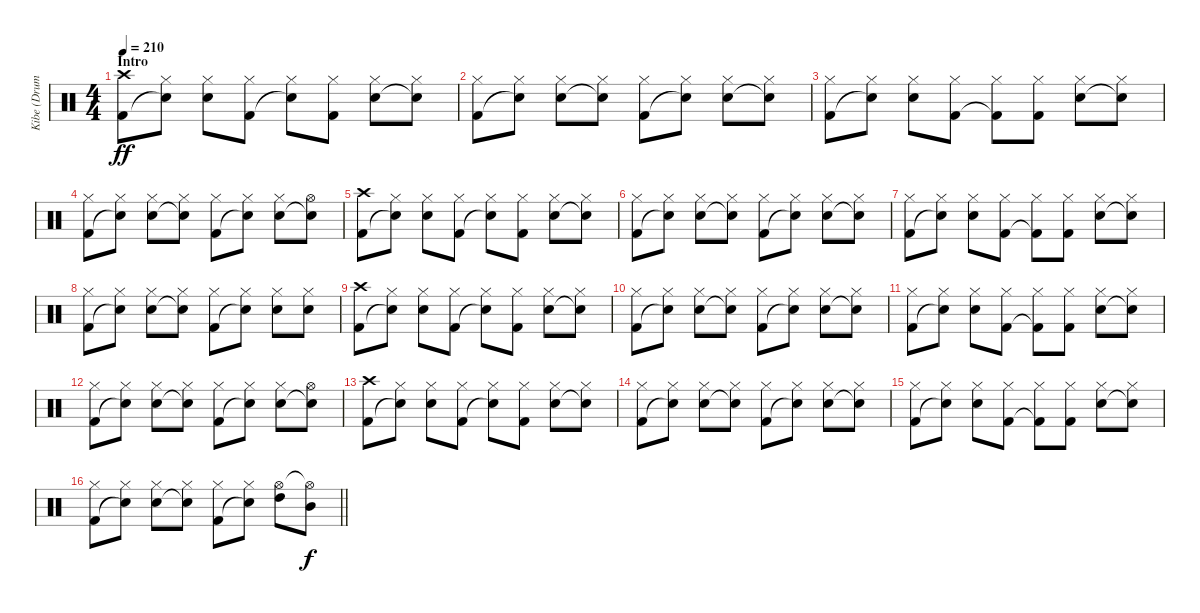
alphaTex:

\track ("Kibe (Drums)" "Kibe (Drum") {instrument percussion}
\staff {score}
\articulation defaults
\ts (4 4)
\section ("" "Intro")
\tempo 210
\clef neutral
\ks c
("Crash high (hit)" "Kick (hit) 2").8{dy ff} ("Hi-Hat (closed)" "Snare (hit)"{t}).8 ("Hi-Hat (closed)" "Snare (hit) 2").8 ("Hi-Hat (closed)" "Kick (hit) 2").8 ("Hi-Hat (closed)" "Snare (hit)"{t}).8 ("Hi-Hat (closed)" "Kick (hit) 2").8 ("Hi-Hat (closed)" "Snare (hit) 2").8 ("Hi-Hat (closed)" "Snare (hit)"{t}).8 |
("Hi-Hat (closed)" "Kick (hit) 2").8 ("Hi-Hat (closed)" "Snare (hit)"{t}).8 ("Hi-Hat (closed)" "Snare (hit) 2").8 ("Hi-Hat (closed)" "Snare (hit)"{t}).8 ("Hi-Hat (closed)" "Kick (hit) 2").8 ("Hi-Hat (closed)" "Snare (hit)"{t}).8 ("Hi-Hat (closed)" "Snare (hit) 2").8 ("Hi-Hat (closed)" "Snare (hit)"{t}).8 |
("Hi-Hat (closed)" "Kick (hit) 2").8 ("Hi-Hat (closed)" "Snare (hit)"{t}).8 ("Hi-Hat (closed)" "Snare (hit) 2").8 ("Hi-Hat (closed)" "Kick (hit) 2").8 ("Hi-Hat (closed)" "Kick (hit) 2"{t}).8 ("Hi-Hat (closed)" "Kick (hit) 2").8 ("Hi-Hat (closed)" "Snare (hit) 2").8 ("Hi-Hat (closed)" "Snare (hit)"{t}).8 |
("Hi-Hat (closed)" "Kick (hit) 2").8 ("Hi-Hat (closed)" "Snare (hit)"{t}).8 ("Hi-Hat (closed)" "Snare (hit) 2").8 ("Hi-Hat (closed)" "Snare (hit)"{t}).8 ("Hi-Hat (closed)" "Kick (hit) 2").8 ("Hi-Hat (closed)" "Snare (hit)"{t}).8 ("Hi-Hat (closed)" "Snare (hit) 2").8 ("Hi-Hat (open)" "Snare (hit)"{t}).8 |
("Crash high (hit)" "Kick (hit) 2").8 ("Hi-Hat (closed)" "Snare (hit)"{t}).8 ("Hi-Hat (closed)" "Snare (hit) 2").8 ("Hi-Hat (closed)" "Kick (hit) 2").8 ("Hi-Hat (closed)" "Snare (hit)"{t}).8 ("Hi-Hat (closed)" "Kick (hit) 2").8 ("Hi-Hat (closed)" "Snare (hit) 2").8 ("Hi-Hat (closed)" "Snare (hit)"{t}).8 |
("Hi-Hat (closed)" "Kick (hit) 2").8 ("Hi-Hat (closed)" "Snare (hit)"{t}).8 ("Hi-Hat (closed)" "Snare (hit) 2").8 ("Hi-Hat (closed)" "Snare (hit)"{t}).8 ("Hi-Hat (closed)" "Kick (hit) 2").8 ("Hi-Hat (closed)" "Snare (hit)"{t}).8 ("Hi-Hat (closed)" "Snare (hit) 2").8 ("Hi-Hat (closed)" "Snare (hit)"{t}).8 |
("Hi-Hat (closed)" "Kick (hit) 2").8 ("Hi-Hat (closed)" "Snare (hit)"{t}).8 ("Hi-Hat (closed)" "Snare (hit) 2").8 ("Hi-Hat (closed)" "Kick (hit) 2").8 ("Hi-Hat (closed)" "Kick (hit) 2"{t}).8 ("Hi-Hat (closed)" "Kick (hit) 2").8 ("Hi-Hat (closed)" "Snare (hit) 2").8 ("Hi-Hat (closed)" "Snare (hit)"{t}).8 |
("Hi-Hat (closed)" "Kick (hit) 2").8 ("Hi-Hat (closed)" "Snare (hit)"{t}).8 ("Hi-Hat (closed)" "Snare (hit) 2").8 ("Hi-Hat (closed)" "Snare (hit)"{t}).8 ("Hi-Hat (closed)" "Kick (hit) 2").8 ("Hi-Hat (closed)" "Snare (hit)"{t}).8 ("Hi-Hat (closed)" "Snare (hit) 2").8 ("Hi-Hat (closed)" "Snare (hit) 2").8 |
("Crash high (hit)" "Kick (hit) 2").8 ("Hi-Hat (closed)" "Snare (hit)"{t}).8 ("Hi-Hat (closed)" "Snare (hit) 2").8 ("Hi-Hat (closed)" "Kick (hit) 2").8 ("Hi-Hat (closed)" "Snare (hit)"{t}).8 ("Hi-Hat (closed)" "Kick (hit) 2").8 ("Hi-Hat (closed)" "Snare (hit) 2").8 ("Hi-Hat (closed)" "Snare (hit)"{t}).8 |
("Hi-Hat (closed)" "Kick (hit) 2").8 ("Hi-Hat (closed)" "Snare (hit)"{t}).8 ("Hi-Hat (closed)" "Snare (hit) 2").8 ("Hi-Hat (closed)" "Snare (hit)"{t}).8 ("Hi-Hat (closed)" "Kick (hit) 2").8 ("Hi-Hat (closed)" "Snare (hit)"{t}).8 ("Hi-Hat (closed)" "Snare (hit) 2").8 ("Hi-Hat (closed)" "Snare (hit)"{t}).8 |
("Hi-Hat (closed)" "Kick (hit) 2").8 ("Hi-Hat (closed)" "Snare (hit)"{t}).8 ("Hi-Hat (closed)" "Snare (hit) 2").8 ("Hi-Hat (closed)" "Kick (hit) 2").8 ("Hi-Hat (closed)" "Kick (hit) 2"{t}).8 ("Hi-Hat (closed)" "Kick (hit) 2").8 ("Hi-Hat (closed)" "Snare (hit) 2").8 ("Hi-Hat (closed)" "Snare (hit)"{t}).8 |
("Hi-Hat (closed)" "Kick (hit) 2").8 ("Hi-Hat (closed)" "Snare (hit)"{t}).8 ("Hi-Hat (closed)" "Snare (hit) 2").8 ("Hi-Hat (closed)" "Snare (hit)"{t}).8 ("Hi-Hat (closed)" "Kick (hit) 2").8 ("Hi-Hat (closed)" "Snare (hit)"{t}).8 ("Hi-Hat (closed)" "Snare (hit) 2").8 ("Hi-Hat (open)" "Snare (hit)"{t}).8 |
("Crash high (hit)" "Kick (hit) 2").8 ("Hi-Hat (closed)" "Snare (hit)"{t}).8 ("Hi-Hat (closed)" "Snare (hit) 2").8 ("Hi-Hat (closed)" "Kick (hit) 2").8 ("Hi-Hat (closed)" "Snare (hit)"{t}).8 ("Hi-Hat (closed)" "Kick (hit) 2").8 ("Hi-Hat (closed)" "Snare (hit) 2").8 ("Hi-Hat (closed)" "Snare (hit)"{t}).8 |
("Hi-Hat (closed)" "Kick (hit) 2").8 ("Hi-Hat (closed)" "Snare (hit)"{t}).8 ("Hi-Hat (closed)" "Snare (hit) 2").8 ("Hi-Hat (closed)" "Snare (hit)"{t}).8 ("Hi-Hat (closed)" "Kick (hit) 2").8 ("Hi-Hat (closed)" "Snare (hit)"{t}).8 ("Hi-Hat (closed)" "Snare (hit) 2").8 ("Hi-Hat (closed)" "Snare (hit)"{t}).8 |
("Hi-Hat (closed)" "Kick (hit) 2").8 ("Hi-Hat (closed)" "Snare (hit)"{t}).8 ("Hi-Hat (closed)" "Snare (hit) 2").8 ("Hi-Hat (closed)" "Kick (hit) 2").8 ("Hi-Hat (closed)" "Kick (hit) 2"{t}).8 ("Hi-Hat (closed)" "Kick (hit) 2").8 ("Hi-Hat (closed)" "Snare (hit) 2").8 ("Hi-Hat (closed)" "Snare (hit)"{t}).8 |
\barLineRight lightlight
("Hi-Hat (closed)" "Kick (hit) 2").8 ("Hi-Hat (closed)" "Snare (hit)"{t}).8 ("Hi-Hat (closed)" "Snare (hit) 2").8 ("Hi-Hat (closed)" "Snare (hit)"{t}).8 ("Hi-Hat (closed)" "Kick (hit) 2").8 ("Hi-Hat (closed)" "Snare (hit)"{t}).8 ("Hi-Hat (open)" "High Tom (hit)").8 ("Hi-Hat (open)"{t} "Mid Tom (hit)").8{dy f}
